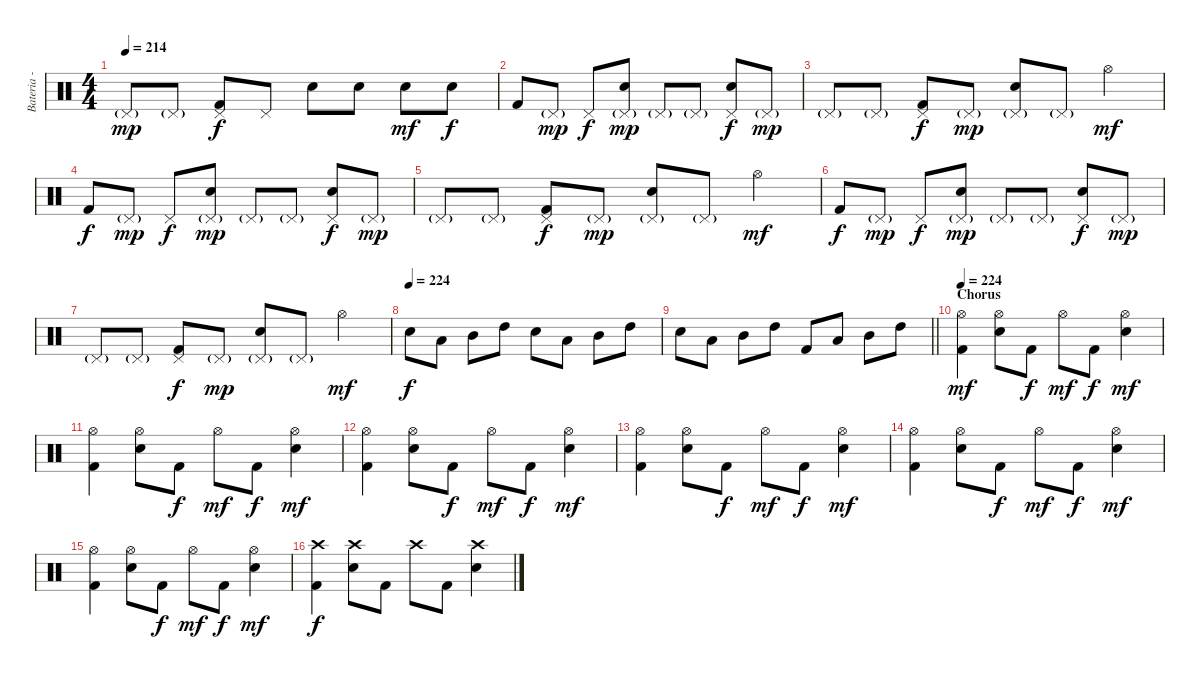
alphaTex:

\track ("Bateria - Larzon" "Bateria - ") {instrument percussion}
\staff {score}
\articulation defaults
\ts (4 4)
\tempo 214
\clef neutral
\ks c "Pedal Hi-Hat (hit)"{g}.8{dy mp} "Pedal Hi-Hat (hit)"{g}.8
("Pedal Hi-Hat (hit)" "Kick (hit) 2").8{dy f} "Pedal Hi-Hat (hit)".8 "Electric Snare (hit)".8 "Electric Snare (hit)".8 "Electric Snare (hit)".8{dy mf} "Electric Snare (hit)".8{dy f} |
"Kick (hit) 2".8 "Pedal Hi-Hat (hit)"{g}.8{dy mp} "Pedal Hi-Hat (hit)".8{dy f} ("Pedal Hi-Hat (hit)"{g} "Electric Snare (hit)").8{dy mp} "Pedal Hi-Hat (hit)"{g}.8 "Pedal Hi-Hat (hit)"{g}.8 ("Pedal Hi-Hat (hit)" "Electric Snare (hit)").8{dy f} "Pedal Hi-Hat (hit)"{g}.8{dy mp} |
"Pedal Hi-Hat (hit)"{g}.8 "Pedal Hi-Hat (hit)"{g}.8 ("Pedal Hi-Hat (hit)" "Kick (hit) 2").8{dy f} "Pedal Hi-Hat (hit)"{g}.8{dy mp} ("Pedal Hi-Hat (hit)"{g} "Electric Snare (hit)").8 "Pedal Hi-Hat (hit)"{g}.8 "Hi-Hat (open)".4{dy mf} |
"Kick (hit) 2".8{dy f} "Pedal Hi-Hat (hit)"{g}.8{dy mp} "Pedal Hi-Hat (hit)".8{dy f} ("Pedal Hi-Hat (hit)"{g} "Electric Snare (hit)").8{dy mp} "Pedal Hi-Hat (hit)"{g}.8 "Pedal Hi-Hat (hit)"{g}.8 ("Pedal Hi-Hat (hit)" "Electric Snare (hit)").8{dy f} "Pedal Hi-Hat (hit)"{g}.8{dy mp} |
"Pedal Hi-Hat (hit)"{g}.8 "Pedal Hi-Hat (hit)"{g}.8 ("Pedal Hi-Hat (hit)" "Kick (hit) 2").8{dy f} "Pedal Hi-Hat (hit)"{g}.8{dy mp} ("Pedal Hi-Hat (hit)"{g} "Electric Snare (hit)").8 "Pedal Hi-Hat (hit)"{g}.8 "Hi-Hat (open)".4{dy mf} |
"Kick (hit) 2".8{dy f} "Pedal Hi-Hat (hit)"{g}.8{dy mp} "Pedal Hi-Hat (hit)".8{dy f} ("Pedal Hi-Hat (hit)"{g} "Electric Snare (hit)").8{dy mp} "Pedal Hi-Hat (hit)"{g}.8 "Pedal Hi-Hat (hit)"{g}.8 ("Pedal Hi-Hat (hit)" "Electric Snare (hit)").8{dy f} "Pedal Hi-Hat (hit)"{g}.8{dy mp} |
"Pedal Hi-Hat (hit)"{g}.8 "Pedal Hi-Hat (hit)"{g}.8 ("Pedal Hi-Hat (hit)" "Kick (hit) 2").8{dy f} "Pedal Hi-Hat (hit)"{g}.8{dy mp} ("Pedal Hi-Hat (hit)"{g} "Electric Snare (hit)").8 "Pedal Hi-Hat (hit)"{g}.8 "Hi-Hat (open)".4{dy mf} |
\tempo (224)
"Electric Snare (hit)".8{dy f} "Low Tom (hit)".8 "Mid Tom (hit)".8 "High Tom (hit)".8 "Electric Snare (hit)".8 "Low Tom (hit)".8 "Mid Tom (hit)".8 "High Tom (hit)".8 |
\barLineRight lightlight "Electric Snare (hit)".8 "Low Tom (hit)".8 "Mid Tom (hit)".8 "High Tom (hit)".8 "Kick (hit) 2".8 "Low Tom (hit)".8 "Mid Tom (hit)".8 "High Tom (hit)".8
|
\section ("" "Chorus")
\tempo 224
("Kick (hit) 2" "Hi-Hat (open)").4{dy mf} ("Electric Snare (hit)" "Hi-Hat (open)").8 "Kick (hit) 2".8{dy f} "Hi-Hat (open)".8{dy mf} "Kick (hit) 2".8{dy f} ("Electric Snare (hit)" "Hi-Hat (open)").4{dy mf} |
("Kick (hit) 2" "Hi-Hat (open)").4 ("Electric Snare (hit)" "Hi-Hat (open)").8 "Kick (hit) 2".8{dy f} "Hi-Hat (open)".8{dy mf} "Kick (hit) 2".8{dy f} ("Electric Snare (hit)" "Hi-Hat (open)").4{dy mf} |
("Kick (hit) 2" "Hi-Hat (open)").4 ("Electric Snare (hit)" "Hi-Hat (open)").8 "Kick (hit) 2".8{dy f} "Hi-Hat (open)".8{dy mf} "Kick (hit) 2".8{dy f} ("Electric Snare (hit)" "Hi-Hat (open)").4{dy mf} |
("Kick (hit) 2" "Hi-Hat (open)").4 ("Electric Snare (hit)" "Hi-Hat (open)").8 "Kick (hit) 2".8{dy f} "Hi-Hat (open)".8{dy mf} "Kick (hit) 2".8{dy f} ("Electric Snare (hit)" "Hi-Hat (open)").4{dy mf} |
("Kick (hit) 2" "Hi-Hat (open)").4 ("Electric Snare (hit)" "Hi-Hat (open)").8 "Kick (hit) 2".8{dy f} "Hi-Hat (open)".8{dy mf} "Kick (hit) 2".8{dy f} ("Electric Snare (hit)" "Hi-Hat (open)").4{dy mf} |
("Kick (hit) 2" "Hi-Hat (open)").4 ("Electric Snare (hit)" "Hi-Hat (open)").8 "Kick (hit) 2".8{dy f} "Hi-Hat (open)".8{dy mf} "Kick (hit) 2".8{dy f} ("Electric Snare (hit)" "Hi-Hat (open)").4{dy mf} |
("Kick (hit) 2" "Crash high (hit)").4{dy f} ("Electric Snare (hit)" "Crash high (hit)").8 "Kick (hit) 2".8 "Crash high (hit)".8 "Kick (hit) 2".8 ("Electric Snare (hit)" "Crash high (hit)").4
